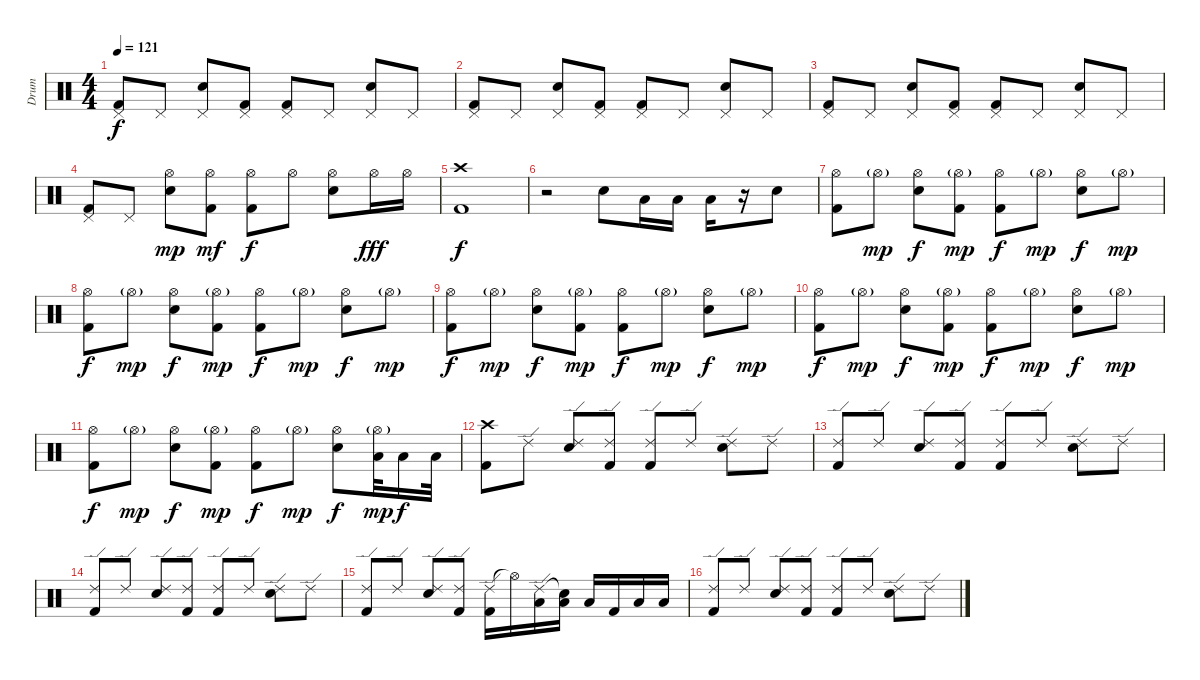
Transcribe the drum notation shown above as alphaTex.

\track ("Drum" "Drum") {instrument percussion}
\staff {score}
\articulation defaults
\ts (4 4)
\tempo 121
\clef neutral
\ks c
("Pedal Hi-Hat (hit)" "Kick (hit) 2").8{dy f} "Pedal Hi-Hat (hit)".8 ("Pedal Hi-Hat (hit)" "Snare (hit) 2").8 ("Pedal Hi-Hat (hit)" "Kick (hit) 2").8 ("Pedal Hi-Hat (hit)" "Kick (hit) 2").8 "Pedal Hi-Hat (hit)".8 ("Pedal Hi-Hat (hit)" "Snare (hit) 2").8 "Pedal Hi-Hat (hit)".8 |
("Pedal Hi-Hat (hit)" "Kick (hit) 2").8 "Pedal Hi-Hat (hit)".8 ("Pedal Hi-Hat (hit)" "Snare (hit) 2").8 ("Pedal Hi-Hat (hit)" "Kick (hit) 2").8 ("Pedal Hi-Hat (hit)" "Kick (hit) 2").8 "Pedal Hi-Hat (hit)".8 ("Pedal Hi-Hat (hit)" "Snare (hit) 2").8 "Pedal Hi-Hat (hit)".8 |
("Pedal Hi-Hat (hit)" "Kick (hit) 2").8 "Pedal Hi-Hat (hit)".8 ("Pedal Hi-Hat (hit)" "Snare (hit) 2").8 ("Pedal Hi-Hat (hit)" "Kick (hit) 2").8 ("Pedal Hi-Hat (hit)" "Kick (hit) 2").8 "Pedal Hi-Hat (hit)".8 ("Pedal Hi-Hat (hit)" "Snare (hit) 2").8 "Pedal Hi-Hat (hit)".8 |
("Pedal Hi-Hat (hit)" "Kick (hit) 2").8 "Pedal Hi-Hat (hit)".8 ("Hi-Hat (open)" "Snare (hit) 2").8{dy mp} ("Hi-Hat (open)" "Kick (hit) 2").8{dy mf} ("Hi-Hat (open)" "Kick (hit) 2").8{dy f} "Hi-Hat (open)".8 ("Hi-Hat (open)" "Snare (hit) 2").8 "Hi-Hat (open)".16{dy fff} "Hi-Hat (open)".16 |
("Crash high (hit)" "Kick (hit) 2").1{dy f} |
r.2 "Snare (hit) 2".8 "Low Tom (hit)".16 "Low Tom (hit)".16 "Low Tom (hit)".16 r.16 "Snare (hit) 2".8 |
("Hi-Hat (open)" "Kick (hit) 2").8 "Hi-Hat (open)"{g}.8{dy mp} ("Hi-Hat (open)" "Snare (hit) 2").8{dy f} ("Hi-Hat (open)"{g} "Kick (hit) 2").8{dy mp} ("Hi-Hat (open)" "Kick (hit) 2").8{dy f} "Hi-Hat (open)"{g}.8{dy mp} ("Hi-Hat (open)" "Snare (hit) 2").8{dy f} "Hi-Hat (open)"{g}.8{dy mp} |
("Hi-Hat (open)" "Kick (hit) 2").8{dy f} "Hi-Hat (open)"{g}.8{dy mp} ("Hi-Hat (open)" "Snare (hit) 2").8{dy f} ("Hi-Hat (open)"{g} "Kick (hit) 2").8{dy mp} ("Hi-Hat (open)" "Kick (hit) 2").8{dy f} "Hi-Hat (open)"{g}.8{dy mp} ("Hi-Hat (open)" "Snare (hit) 2").8{dy f} "Hi-Hat (open)"{g}.8{dy mp} |
("Hi-Hat (open)" "Kick (hit) 2").8{dy f} "Hi-Hat (open)"{g}.8{dy mp} ("Hi-Hat (open)" "Snare (hit) 2").8{dy f} ("Hi-Hat (open)"{g} "Kick (hit) 2").8{dy mp} ("Hi-Hat (open)" "Kick (hit) 2").8{dy f} "Hi-Hat (open)"{g}.8{dy mp} ("Hi-Hat (open)" "Snare (hit) 2").8{dy f} "Hi-Hat (open)"{g}.8{dy mp} |
("Hi-Hat (open)" "Kick (hit) 2").8{dy f} "Hi-Hat (open)"{g}.8{dy mp} ("Hi-Hat (open)" "Snare (hit) 2").8{dy f} ("Hi-Hat (open)"{g} "Kick (hit) 2").8{dy mp} ("Hi-Hat (open)" "Kick (hit) 2").8{dy f} "Hi-Hat (open)"{g}.8{dy mp} ("Hi-Hat (open)" "Snare (hit) 2").8{dy f} "Hi-Hat (open)"{g}.8{dy mp} |
("Hi-Hat (open)" "Kick (hit) 2").8{dy f} "Hi-Hat (open)"{g}.8{dy mp} ("Hi-Hat (open)" "Snare (hit) 2").8{dy f} ("Hi-Hat (open)"{g} "Kick (hit) 2").8{dy mp} ("Hi-Hat (open)" "Kick (hit) 2").8{dy f} "Hi-Hat (open)"{g}.8{dy mp} ("Hi-Hat (open)" "Snare (hit) 2").8{dy f} ("Hi-Hat (open)"{g} "Low Tom (hit)").32{dy mp} "Low Tom (hit)".16{dy f} "Low Tom (hit)".32 |
("Crash high (hit)" "Kick (hit) 2").8 "Ride (edge) 2".8 ("Ride (edge) 2" "Snare (hit) 2").8 ("Ride (edge) 2" "Kick (hit) 2").8 ("Ride (edge) 2" "Kick (hit) 2").8 "Ride (edge) 2".8 ("Ride (edge) 2" "Snare (hit) 2").8 "Ride (edge) 2".8 |
("Ride (edge) 2" "Kick (hit) 2").8 "Ride (edge) 2".8 ("Ride (edge) 2" "Snare (hit) 2").8 ("Ride (edge) 2" "Kick (hit) 2").8 ("Ride (edge) 2" "Kick (hit) 2").8 "Ride (edge) 2".8 ("Ride (edge) 2" "Snare (hit) 2").8 "Ride (edge) 2".8 |
("Ride (edge) 2" "Kick (hit) 2").8 "Ride (edge) 2".8 ("Ride (edge) 2" "Snare (hit) 2").8 ("Ride (edge) 2" "Kick (hit) 2").8 ("Ride (edge) 2" "Kick (hit) 2").8 "Ride (edge) 2".8 ("Ride (edge) 2" "Snare (hit) 2").8 "Ride (edge) 2".8 |
("Ride (edge) 2" "Kick (hit) 2").8 "Ride (edge) 2".8 ("Ride (edge) 2" "Snare (hit) 2").8 ("Ride (edge) 2" "Kick (hit) 2").8 ("Ride (edge) 2" "Kick (hit) 2").16 "Hi-Hat (open)"{t}.16 ("Ride (edge) 2" "Low Tom (hit)").16 ("Snare (hit)"{t} "Low Tom (hit)").16 "Low Tom (hit)".16 "Kick (hit) 2".16 "Low Tom (hit)".16 "Low Tom (hit)".16 |
("Ride (edge) 2" "Kick (hit) 2").8 "Ride (edge) 2".8 ("Ride (edge) 2" "Snare (hit) 2").8 ("Ride (edge) 2" "Kick (hit) 2").8 ("Ride (edge) 2" "Kick (hit) 2").8 "Ride (edge) 2".8 ("Ride (edge) 2" "Snare (hit) 2").8 "Ride (edge) 2".8
